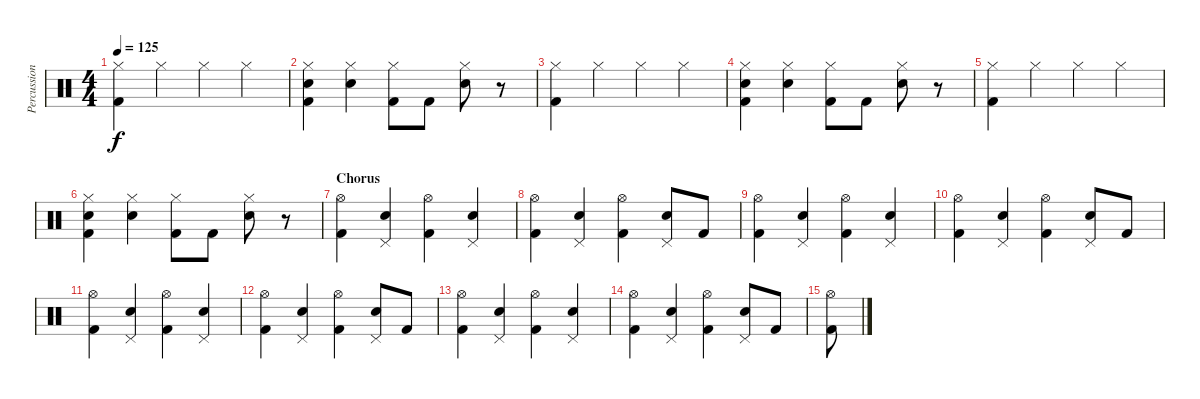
\track ("Percussion" "Percussion") {instrument percussion}
\staff {score}
\articulation defaults
\ts (4 4)
\tempo 125
\clef neutral
\ks c
("Hi-Hat (closed)" "Kick (hit) 2").4{dy f} "Hi-Hat (closed)".4 "Hi-Hat (closed)".4 "Hi-Hat (closed)".4 |
("Hi-Hat (closed)" "Electric Snare (hit)" "Kick (hit) 2").4 ("Hi-Hat (closed)" "Electric Snare (hit)").4 ("Hi-Hat (closed)" "Kick (hit) 2").8 "Kick (hit) 2".8 ("Hi-Hat (closed)" "Electric Snare (hit)").8 r.8 |
("Hi-Hat (closed)" "Kick (hit) 2").4 "Hi-Hat (closed)".4 "Hi-Hat (closed)".4 "Hi-Hat (closed)".4 |
("Hi-Hat (closed)" "Electric Snare (hit)" "Kick (hit) 2").4 ("Hi-Hat (closed)" "Electric Snare (hit)").4 ("Hi-Hat (closed)" "Kick (hit) 2").8 "Kick (hit) 2".8 ("Hi-Hat (closed)" "Electric Snare (hit)").8 r.8 |
("Hi-Hat (closed)" "Kick (hit) 2").4 "Hi-Hat (closed)".4 "Hi-Hat (closed)".4 "Hi-Hat (closed)".4 |
("Hi-Hat (closed)" "Electric Snare (hit)" "Kick (hit) 2").4 ("Hi-Hat (closed)" "Electric Snare (hit)").4 ("Hi-Hat (closed)" "Kick (hit) 2").8 "Kick (hit) 2".8 ("Hi-Hat (closed)" "Electric Snare (hit)").8 r.8 |
\section ("" "Chorus")
("Hi-Hat (open)" "Kick (hit) 2").4 ("Pedal Hi-Hat (hit)" "Electric Snare (hit)").4 ("Hi-Hat (open)" "Kick (hit) 2").4 ("Pedal Hi-Hat (hit)" "Electric Snare (hit)").4 |
("Hi-Hat (open)" "Kick (hit) 2").4 ("Pedal Hi-Hat (hit)" "Electric Snare (hit)").4 ("Hi-Hat (open)" "Kick (hit) 2").4 ("Pedal Hi-Hat (hit)" "Electric Snare (hit)").8 "Kick (hit) 2".8 |
("Hi-Hat (open)" "Kick (hit) 2").4 ("Pedal Hi-Hat (hit)" "Electric Snare (hit)").4 ("Hi-Hat (open)" "Kick (hit) 2").4 ("Pedal Hi-Hat (hit)" "Electric Snare (hit)").4 |
("Hi-Hat (open)" "Kick (hit) 2").4 ("Pedal Hi-Hat (hit)" "Electric Snare (hit)").4 ("Hi-Hat (open)" "Kick (hit) 2").4 ("Pedal Hi-Hat (hit)" "Electric Snare (hit)").8 "Kick (hit) 2".8 |
("Hi-Hat (open)" "Kick (hit) 2").4 ("Pedal Hi-Hat (hit)" "Electric Snare (hit)").4 ("Hi-Hat (open)" "Kick (hit) 2").4 ("Pedal Hi-Hat (hit)" "Electric Snare (hit)").4 |
("Hi-Hat (open)" "Kick (hit) 2").4 ("Pedal Hi-Hat (hit)" "Electric Snare (hit)").4 ("Hi-Hat (open)" "Kick (hit) 2").4 ("Pedal Hi-Hat (hit)" "Electric Snare (hit)").8 "Kick (hit) 2".8 |
("Hi-Hat (open)" "Kick (hit) 2").4 ("Pedal Hi-Hat (hit)" "Electric Snare (hit)").4 ("Hi-Hat (open)" "Kick (hit) 2").4 ("Pedal Hi-Hat (hit)" "Electric Snare (hit)").4 |
("Hi-Hat (open)" "Kick (hit) 2").4 ("Pedal Hi-Hat (hit)" "Electric Snare (hit)").4 ("Hi-Hat (open)" "Kick (hit) 2").4 ("Pedal Hi-Hat (hit)" "Electric Snare (hit)").8 "Kick (hit) 2".8 |
("Hi-Hat (open)" "Kick (hit) 2").8
